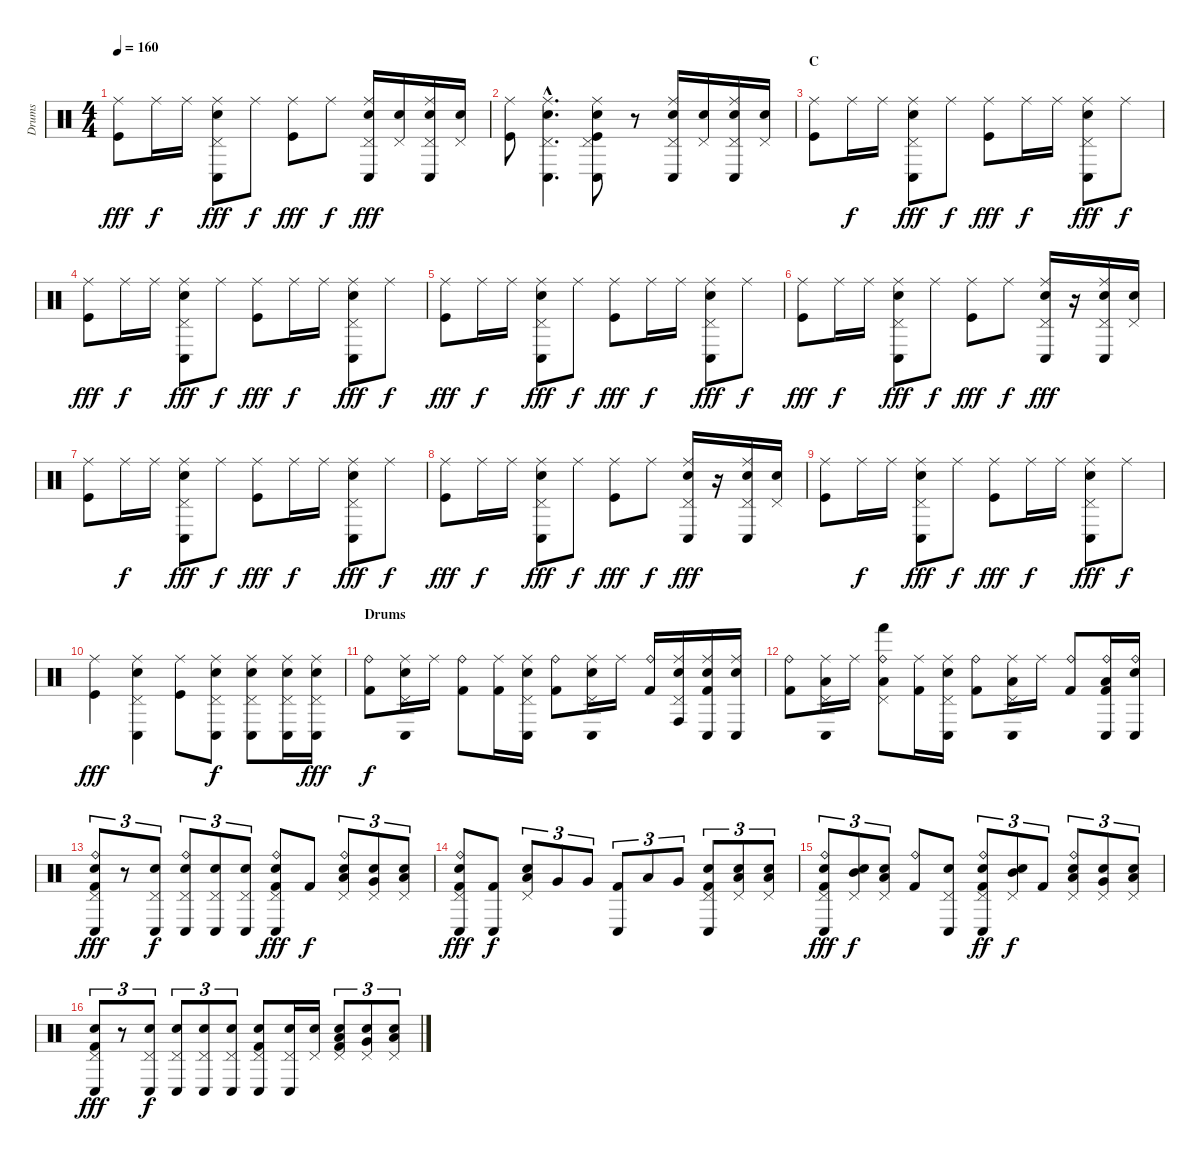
\track ("Drums" "Drums") {instrument percussion}
\staff {score}
\articulation defaults
\ts (4 4)
\tempo 160
\clef neutral
\ks c
("Ride (middle)" "Kick (hit)").8{dy fff} "Ride (middle)".16{dy f} "Ride (middle)".16 ("Ride (middle)" "Pedal Hi-Hat (hit)" "Conga low (hit)" "Electric Snare (hit)").8{dy fff} "Ride (middle)".8{dy f} ("Ride (middle)" "Kick (hit)").8{dy fff} "Ride (middle)".8{dy f} ("Ride (middle)" "Pedal Hi-Hat (hit)" "Conga low (hit)" "Electric Snare (hit)").16{dy fff} ("Pedal Hi-Hat (hit)" "Electric Snare (hit)").16 ("Ride (middle)" "Pedal Hi-Hat (hit)" "Conga low (hit)" "Electric Snare (hit)").16 ("Pedal Hi-Hat (hit)" "Electric Snare (hit)").16 |
("Ride (middle)" "Kick (hit)").8 ("Ride (middle)"{hac} "Pedal Hi-Hat (hit)"{hac} "Conga low (hit)"{hac} "Electric Snare (hit)"{hac}).4{d} ("Ride (middle)" "Pedal Hi-Hat (hit)" "Conga low (hit)" "Electric Snare (hit)" "Kick (hit)").8 r.8 ("Ride (middle)" "Pedal Hi-Hat (hit)" "Conga low (hit)" "Electric Snare (hit)").16 ("Pedal Hi-Hat (hit)" "Electric Snare (hit)").16 ("Ride (middle)" "Pedal Hi-Hat (hit)" "Conga low (hit)" "Electric Snare (hit)").16 ("Pedal Hi-Hat (hit)" "Electric Snare (hit)").16 |
\section ("" "C")
("Ride (middle)" "Kick (hit)").8 "Ride (middle)".16{dy f} "Ride (middle)".16 ("Ride (middle)" "Pedal Hi-Hat (hit)" "Conga low (hit)" "Electric Snare (hit)").8{dy fff} "Ride (middle)".8{dy f} ("Ride (middle)" "Kick (hit)").8{dy fff} "Ride (middle)".16{dy f} "Ride (middle)".16 ("Ride (middle)" "Pedal Hi-Hat (hit)" "Conga low (hit)" "Electric Snare (hit)").8{dy fff} "Ride (middle)".8{dy f} |
("Ride (middle)" "Kick (hit)").8{dy fff} "Ride (middle)".16{dy f} "Ride (middle)".16 ("Ride (middle)" "Pedal Hi-Hat (hit)" "Conga low (hit)" "Electric Snare (hit)").8{dy fff} "Ride (middle)".8{dy f} ("Ride (middle)" "Kick (hit)").8{dy fff} "Ride (middle)".16{dy f} "Ride (middle)".16 ("Ride (middle)" "Pedal Hi-Hat (hit)" "Conga low (hit)" "Electric Snare (hit)").8{dy fff} "Ride (middle)".8{dy f} |
("Ride (middle)" "Kick (hit)").8{dy fff} "Ride (middle)".16{dy f} "Ride (middle)".16 ("Ride (middle)" "Pedal Hi-Hat (hit)" "Conga low (hit)" "Electric Snare (hit)").8{dy fff} "Ride (middle)".8{dy f} ("Ride (middle)" "Kick (hit)").8{dy fff} "Ride (middle)".16{dy f} "Ride (middle)".16 ("Ride (middle)" "Pedal Hi-Hat (hit)" "Conga low (hit)" "Electric Snare (hit)").8{dy fff} "Ride (middle)".8{dy f} |
("Ride (middle)" "Kick (hit)").8{dy fff} "Ride (middle)".16{dy f} "Ride (middle)".16 ("Ride (middle)" "Pedal Hi-Hat (hit)" "Conga low (hit)" "Electric Snare (hit)").8{dy fff} "Ride (middle)".8{dy f} ("Ride (middle)" "Kick (hit)").8{dy fff} "Ride (middle)".8{dy f} ("Ride (middle)" "Pedal Hi-Hat (hit)" "Conga low (hit)" "Electric Snare (hit)").16{dy fff} r.16 ("Ride (middle)" "Pedal Hi-Hat (hit)" "Conga low (hit)" "Electric Snare (hit)").16 ("Pedal Hi-Hat (hit)" "Electric Snare (hit)").16 |
("Ride (middle)" "Kick (hit)").8 "Ride (middle)".16{dy f} "Ride (middle)".16 ("Ride (middle)" "Pedal Hi-Hat (hit)" "Conga low (hit)" "Electric Snare (hit)").8{dy fff} "Ride (middle)".8{dy f} ("Ride (middle)" "Kick (hit)").8{dy fff} "Ride (middle)".16{dy f} "Ride (middle)".16 ("Ride (middle)" "Pedal Hi-Hat (hit)" "Conga low (hit)" "Electric Snare (hit)").8{dy fff} "Ride (middle)".8{dy f} |
("Ride (middle)" "Kick (hit)").8{dy fff} "Ride (middle)".16{dy f} "Ride (middle)".16 ("Ride (middle)" "Pedal Hi-Hat (hit)" "Conga low (hit)" "Electric Snare (hit)").8{dy fff} "Ride (middle)".8{dy f} ("Ride (middle)" "Kick (hit)").8{dy fff} "Ride (middle)".8{dy f} ("Ride (middle)" "Pedal Hi-Hat (hit)" "Conga low (hit)" "Electric Snare (hit)").16{dy fff} r.16 ("Ride (middle)" "Pedal Hi-Hat (hit)" "Conga low (hit)" "Electric Snare (hit)").16 ("Pedal Hi-Hat (hit)" "Electric Snare (hit)").16 |
("Ride (middle)" "Kick (hit)").8 "Ride (middle)".16{dy f} "Ride (middle)".16 ("Ride (middle)" "Pedal Hi-Hat (hit)" "Conga low (hit)" "Electric Snare (hit)").8{dy fff} "Ride (middle)".8{dy f} ("Ride (middle)" "Kick (hit)").8{dy fff} "Ride (middle)".16{dy f} "Ride (middle)".16 ("Ride (middle)" "Pedal Hi-Hat (hit)" "Conga low (hit)" "Electric Snare (hit)").8{dy fff} "Ride (middle)".8{dy f} |
("Ride (middle)" "Kick (hit)").4{dy fff} ("Ride (middle)" "Pedal Hi-Hat (hit)" "Conga low (hit)" "Electric Snare (hit)").4 ("Ride (middle)" "Kick (hit)").8 ("Ride (middle)" "Pedal Hi-Hat (hit)" "Conga low (hit)" "Electric Snare (hit)").8{dy f} ("Ride (middle)" "Pedal Hi-Hat (hit)" "Conga low (hit)" "Electric Snare (hit)").8 ("Ride (middle)" "Pedal Hi-Hat (hit)" "Conga low (hit)" "Electric Snare (hit)").16 ("Ride (middle)" "Pedal Hi-Hat (hit)" "Conga low (hit)" "Electric Snare (hit)").16{dy fff} |
\section ("" "Drums")
("Ride (bell)" "Kick (hit) 2").8{dy f} ("Ride (middle)" "Pedal Hi-Hat (hit)" "Conga low (hit)" "Electric Snare (hit)").16 "Ride (middle)".16 ("Ride (bell)" "Kick (hit) 2").8 ("Ride (middle)" "Kick (hit) 2").16 ("Ride (middle)" "Pedal Hi-Hat (hit)" "Conga low (hit)" "Electric Snare (hit)").16 ("Ride (bell)" "Kick (hit) 2").8 ("Ride (middle)" "Pedal Hi-Hat (hit)" "Conga low (hit)" "Electric Snare (hit)").16 "Ride (middle)".16 ("Ride (bell)" "Kick (hit) 2").16 ("Ride (middle)" "Pedal Hi-Hat (hit)" "Conga high (hit)" "Electric Snare (hit)").16 ("Ride (middle)" "Conga low (hit)" "Electric Snare (hit)" "Kick (hit) 2").16 ("Ride (middle)" "Conga low (hit)" "Electric Snare (hit)").16 |
("Ride (bell)" "Kick (hit) 2").8 ("Ride (middle)" "Pedal Hi-Hat (hit)" "Conga low (hit)" "Low Floor Tom (hit)").16 "Ride (middle)".16 ("Ride (bell)" "Pedal Hi-Hat (hit)" "Hand (hit)" "Low Floor Tom (hit)").8 ("Ride (middle)" "Kick (hit) 2").16 ("Ride (middle)" "Pedal Hi-Hat (hit)" "Conga low (hit)" "Electric Snare (hit)").16 ("Ride (bell)" "Kick (hit) 2").8 ("Ride (middle)" "Pedal Hi-Hat (hit)" "Conga low (hit)" "Low Floor Tom (hit)").16 "Ride (middle)".16 ("Ride (bell)" "Kick (hit) 2").8 ("Ride (bell)" "Conga low (hit)" "Low Floor Tom (hit)" "Kick (hit) 2").16 ("Ride (bell)" "Conga low (hit)" "Electric Snare (hit)").16 |
("Ride (bell)" "Pedal Hi-Hat (hit)" "Conga low (hit)" "Electric Snare (hit)" "Kick (hit) 2").8{tu (3 2) dy fff} r.8{tu (3 2)} ("Pedal Hi-Hat (hit)" "Conga low (hit)" "Electric Snare (hit)").8{tu (3 2) dy f} ("Ride (bell)" "Pedal Hi-Hat (hit)" "Conga low (hit)" "Electric Snare (hit)").8{tu (3 2)} ("Pedal Hi-Hat (hit)" "Conga low (hit)" "Electric Snare (hit)").8{tu (3 2)} ("Pedal Hi-Hat (hit)" "Conga low (hit)" "Electric Snare (hit)").8{tu (3 2)} ("Ride (bell)" "Pedal Hi-Hat (hit)" "Conga low (hit)" "Electric Snare (hit)" "Kick (hit) 2").8{dy fff} "Kick (hit) 2".8{dy f} ("Ride (bell)" "Pedal Hi-Hat (hit)" "Low Tom (hit)" "Electric Snare (hit)").8{tu (3 2)} ("Pedal Hi-Hat (hit)" "Very Low Tom (hit)" "Electric Snare (hit)").8{tu (3 2)} ("Pedal Hi-Hat (hit)" "Low Floor Tom (hit)" "Electric Snare (hit)").8{tu (3 2)} |
("Ride (bell)" "Pedal Hi-Hat (hit)" "Conga low (hit)" "Electric Snare (hit)" "Kick (hit) 2").8{dy fff} ("Conga low (hit)" "Kick (hit) 2").8{dy f} ("Pedal Hi-Hat (hit)" "Low Floor Tom (hit)" "Electric Snare (hit)").8{tu (3 2)} "Very Low Tom (hit)".8{tu (3 2)} "Very Low Tom (hit)".8{tu (3 2)} ("Conga low (hit)" "Kick (hit) 2").8{tu (3 2)} "Low Tom (hit)".8{tu (3 2)} "Very Low Tom (hit)".8{tu (3 2)} ("Pedal Hi-Hat (hit)" "Conga low (hit)" "Electric Snare (hit)" "Kick (hit) 2").8{tu (3 2)} ("Pedal Hi-Hat (hit)" "Low Floor Tom (hit)" "Electric Snare (hit)").8{tu (3 2)} ("Pedal Hi-Hat (hit)" "Low Floor Tom (hit)" "Electric Snare (hit)").8{tu (3 2)} |
("Ride (bell)" "Pedal Hi-Hat (hit)" "Conga low (hit)" "Electric Snare (hit)" "Kick (hit) 2").8{tu (3 2) dy fff} ("Pedal Hi-Hat (hit)" "Mid Tom (hit)" "Electric Snare (hit)").8{tu (3 2) dy f} ("Pedal Hi-Hat (hit)" "Low Tom (hit)" "Electric Snare (hit)").8{tu (3 2)} ("Ride (bell)" "Kick (hit) 2").8 ("Pedal Hi-Hat (hit)" "Conga low (hit)" "Electric Snare (hit)").8 ("Ride (bell)" "Pedal Hi-Hat (hit)" "Conga low (hit)" "Electric Snare (hit)" "Kick (hit) 2").8{tu (3 2) dy ff} ("Pedal Hi-Hat (hit)" "Mid Tom (hit)" "Electric Snare (hit)").8{tu (3 2) dy f} "Kick (hit) 2".8{tu (3 2)} ("Ride (bell)" "Pedal Hi-Hat (hit)" "Low Tom (hit)" "Electric Snare (hit)").8{tu (3 2)} ("Pedal Hi-Hat (hit)" "Very Low Tom (hit)" "Electric Snare (hit)").8{tu (3 2)} ("Pedal Hi-Hat (hit)" "Low Floor Tom (hit)" "Electric Snare (hit)").8{tu (3 2)} |
("Pedal Hi-Hat (hit)" "Conga low (hit)" "Electric Snare (hit)" "Kick (hit) 2").8{tu (3 2) dy fff} r.8{tu (3 2)} ("Pedal Hi-Hat (hit)" "Conga low (hit)" "Electric Snare (hit)").8{tu (3 2) dy f} ("Pedal Hi-Hat (hit)" "Conga low (hit)" "Electric Snare (hit)").8{tu (3 2)} ("Pedal Hi-Hat (hit)" "Conga low (hit)" "Electric Snare (hit)").8{tu (3 2)} ("Pedal Hi-Hat (hit)" "Conga low (hit)" "Electric Snare (hit)").8{tu (3 2)} ("Pedal Hi-Hat (hit)" "Conga low (hit)" "Electric Snare (hit)" "Kick (hit) 2").8 ("Pedal Hi-Hat (hit)" "Conga low (hit)" "Electric Snare (hit)").16 ("Pedal Hi-Hat (hit)" "Electric Snare (hit)").16 ("Pedal Hi-Hat (hit)" "Low Tom (hit)" "Electric Snare (hit)" "Kick (hit) 2").8{tu (3 2)} ("Pedal Hi-Hat (hit)" "Very Low Tom (hit)" "Electric Snare (hit)").8{tu (3 2)} ("Pedal Hi-Hat (hit)" "Low Floor Tom (hit)" "Electric Snare (hit)").8{tu (3 2)}
